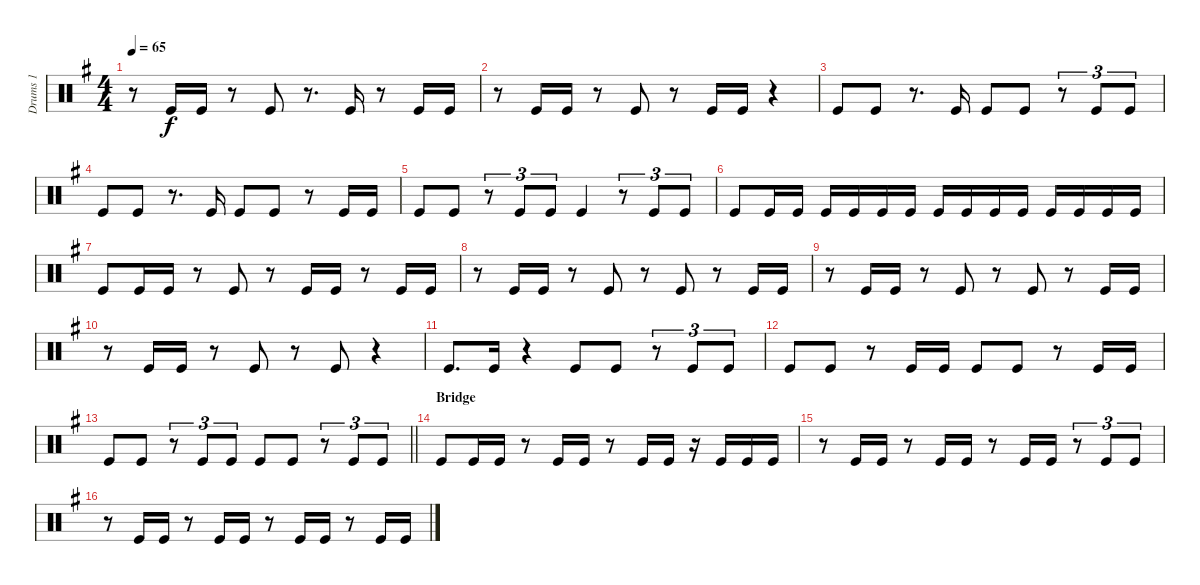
\track ("Drums 1" "Drums 1") {instrument percussion}
\staff {score}
\articulation defaults
\ts (4 4)
\tempo 65
\clef neutral
\ks g
r.8{dy f} "Kick (hit)".16 "Kick (hit)".16 r.8 "Kick (hit)".8 r.8{d} "Kick (hit)".16 r.8 "Kick (hit)".16 "Kick (hit)".16 |
r.8 "Kick (hit)".16 "Kick (hit)".16 r.8 "Kick (hit)".8 r.8 "Kick (hit)".16 "Kick (hit)".16 r.4 |
"Kick (hit)".8 "Kick (hit)".8 r.8{d} "Kick (hit)".16 "Kick (hit)".8 "Kick (hit)".8 r.8{tu (3 2)} "Kick (hit)".8{tu (3 2)} "Kick (hit)".8{tu (3 2)} |
"Kick (hit)".8 "Kick (hit)".8 r.8{d} "Kick (hit)".16 "Kick (hit)".8 "Kick (hit)".8 r.8 "Kick (hit)".16 "Kick (hit)".16 |
"Kick (hit)".8 "Kick (hit)".8 r.8{tu (3 2)} "Kick (hit)".8{tu (3 2)} "Kick (hit)".8{tu (3 2)} "Kick (hit)".4 r.8{tu (3 2)} "Kick (hit)".8{tu (3 2)} "Kick (hit)".8{tu (3 2)} |
"Kick (hit)".8 "Kick (hit)".16 "Kick (hit)".16 "Kick (hit)".16 "Kick (hit)".16 "Kick (hit)".16 "Kick (hit)".16 "Kick (hit)".16 "Kick (hit)".16 "Kick (hit)".16 "Kick (hit)".16 "Kick (hit)".16 "Kick (hit)".16 "Kick (hit)".16 "Kick (hit)".16 |
"Kick (hit)".8 "Kick (hit)".16 "Kick (hit)".16 r.8 "Kick (hit)".8 r.8 "Kick (hit)".16 "Kick (hit)".16 r.8 "Kick (hit)".16 "Kick (hit)".16 |
r.8 "Kick (hit)".16 "Kick (hit)".16 r.8 "Kick (hit)".8 r.8 "Kick (hit)".8 r.8 "Kick (hit)".16 "Kick (hit)".16 |
r.8 "Kick (hit)".16 "Kick (hit)".16 r.8 "Kick (hit)".8 r.8 "Kick (hit)".8 r.8 "Kick (hit)".16 "Kick (hit)".16 |
r.8 "Kick (hit)".16 "Kick (hit)".16 r.8 "Kick (hit)".8 r.8 "Kick (hit)".8 r.4 |
"Kick (hit)".8{d} "Kick (hit)".16 r.4 "Kick (hit)".8 "Kick (hit)".8 r.8{tu (3 2)} "Kick (hit)".8{tu (3 2)} "Kick (hit)".8{tu (3 2)} |
"Kick (hit)".8 "Kick (hit)".8 r.8 "Kick (hit)".16 "Kick (hit)".16 "Kick (hit)".8 "Kick (hit)".8 r.8 "Kick (hit)".16 "Kick (hit)".16 |
\barLineRight lightlight "Kick (hit)".8 "Kick (hit)".8
r.8{tu (3 2)} "Kick (hit)".8{tu (3 2)} "Kick (hit)".8{tu (3 2)} "Kick (hit)".8 "Kick (hit)".8 r.8{tu (3 2)} "Kick (hit)".8{tu (3 2)} "Kick (hit)".8{tu (3 2)} |
\section ("" "Bridge")
"Kick (hit)".8 "Kick (hit)".16 "Kick (hit)".16 r.8 "Kick (hit)".16 "Kick (hit)".16 r.8 "Kick (hit)".16 "Kick (hit)".16 r.16 "Kick (hit)".16 "Kick (hit)".16 "Kick (hit)".16 |
r.8 "Kick (hit)".16 "Kick (hit)".16 r.8 "Kick (hit)".16 "Kick (hit)".16 r.8 "Kick (hit)".16 "Kick (hit)".16 r.8{tu (3 2)} "Kick (hit)".8{tu (3 2)} "Kick (hit)".8{tu (3 2)} |
r.8 "Kick (hit)".16 "Kick (hit)".16 r.8 "Kick (hit)".16 "Kick (hit)".16 r.8 "Kick (hit)".16 "Kick (hit)".16 r.8 "Kick (hit)".16 "Kick (hit)".16
